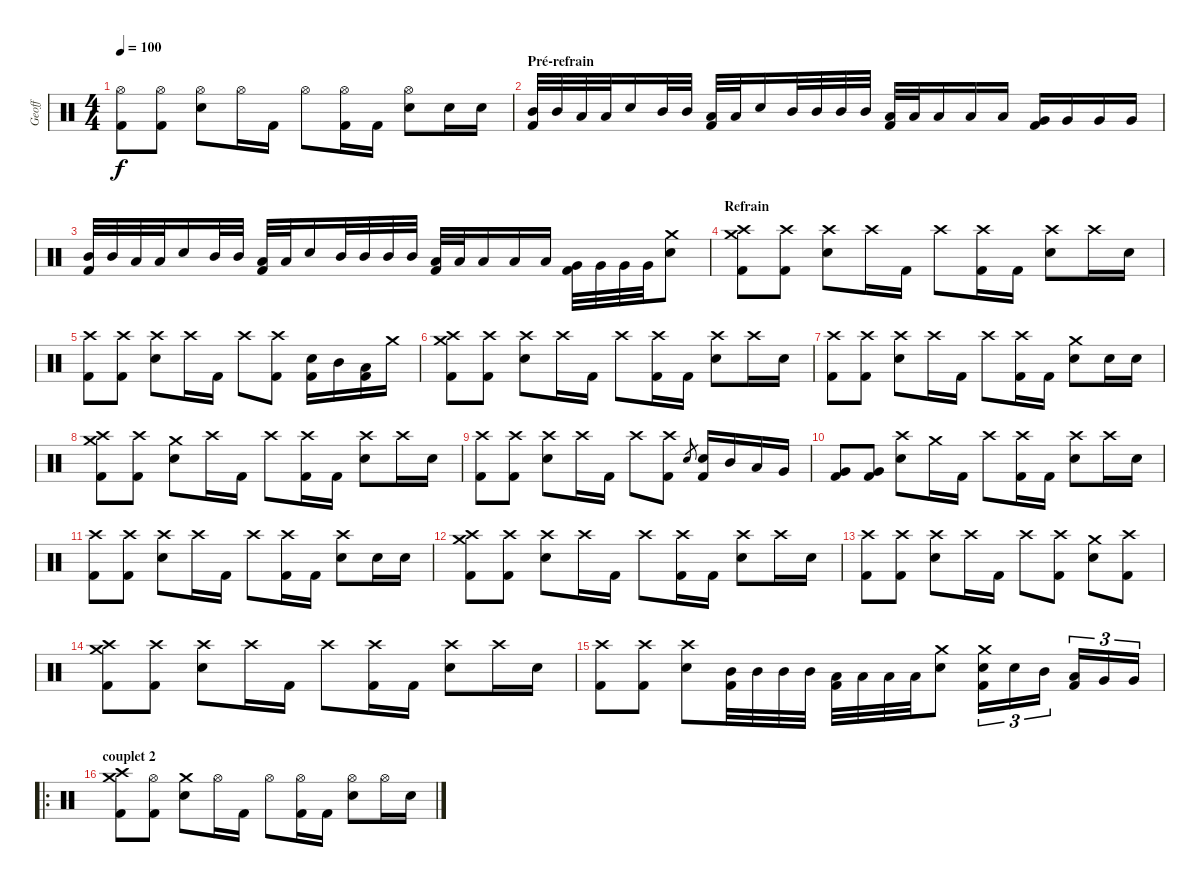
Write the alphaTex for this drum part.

\track ("Geoff" "Geoff") {instrument percussion}
\staff {score}
\articulation defaults
\ts (4 4)
\tempo 100
\clef neutral
\ks c
("Hi-Hat (open)" "Kick (hit) 2").8{dy f} ("Hi-Hat (open)" "Kick (hit) 2").8 ("Hi-Hat (open)" "Electric Snare (hit)").8 "Hi-Hat (open)".16 "Kick (hit) 2".16 "Hi-Hat (open)".8 ("Hi-Hat (open)" "Kick (hit) 2").16 "Kick (hit) 2".16 ("Hi-Hat (open)" "Electric Snare (hit)").8 "Electric Snare (hit)".16 "Electric Snare (hit)".16 |
\section ("" "Pré-refrain")
("Mid Tom (hit)" "Kick (hit) 2").32 "Mid Tom (hit)".32 "Low Tom (hit)".32 "Low Tom (hit)".32 "Electric Snare (hit)".16 "Mid Tom (hit)".32 "Mid Tom (hit)".32 ("Low Tom (hit)" "Kick (hit) 2").32 "Low Tom (hit)".32 "Electric Snare (hit)".16 "Mid Tom (hit)".32 "Mid Tom (hit)".32 "Mid Tom (hit)".32 "Mid Tom (hit)".32 ("Low Tom (hit)" "Kick (hit) 2").32 "Low Tom (hit)".32 "Low Tom (hit)".16 "Low Tom (hit)".16 "Low Tom (hit)".16 ("Very Low Tom (hit)" "Kick (hit) 2").16 "Very Low Tom (hit)".16 "Very Low Tom (hit)".16 "Very Low Tom (hit)".16 |
("Mid Tom (hit)" "Kick (hit) 2").32 "Mid Tom (hit)".32 "Low Tom (hit)".32 "Low Tom (hit)".32 "Electric Snare (hit)".16 "Mid Tom (hit)".32 "Mid Tom (hit)".32 ("Low Tom (hit)" "Kick (hit) 2").32 "Low Tom (hit)".32 "Electric Snare (hit)".16 "Mid Tom (hit)".32 "Mid Tom (hit)".32 "Mid Tom (hit)".32 "Mid Tom (hit)".32 ("Low Tom (hit)" "Kick (hit) 2").32 "Low Tom (hit)".32 "Low Tom (hit)".16 "Low Tom (hit)".16 "Low Tom (hit)".16 ("Very Low Tom (hit)" "Kick (hit) 2").32 "Very Low Tom (hit)".32 "Very Low Tom (hit)".32 "Very Low Tom (hit)".32 ("Crash medium (hit)" "Electric Snare (hit)").8 |
\section ("" "Refrain")
("Crash high (hit)" "Crash medium (hit)" "Kick (hit) 2").8 ("Crash high (hit)" "Kick (hit) 2").8 ("Crash high (hit)" "Electric Snare (hit)").8 "Crash high (hit)".16 "Kick (hit) 2".16 "Crash high (hit)".8 ("Crash high (hit)" "Kick (hit) 2").16 "Kick (hit) 2".16 ("Crash high (hit)" "Electric Snare (hit)").8 "Crash high (hit)".16 "Electric Snare (hit)".16 |
("Crash high (hit)" "Kick (hit) 2").8 ("Crash high (hit)" "Kick (hit) 2").8 ("Crash high (hit)" "Electric Snare (hit)").8 "Crash high (hit)".16 "Kick (hit) 2".16 "Crash high (hit)".8 ("Crash high (hit)" "Kick (hit) 2").8 ("Electric Snare (hit)" "Kick (hit) 2").16 "Mid Tom (hit)".16 ("Low Tom (hit)" "Kick (hit) 2").16 "Crash medium (hit)".16 |
("Crash high (hit)" "Crash medium (hit)" "Kick (hit) 2").8 ("Crash high (hit)" "Kick (hit) 2").8 ("Crash high (hit)" "Electric Snare (hit)").8 "Crash high (hit)".16 "Kick (hit) 2".16 "Crash high (hit)".8 ("Crash high (hit)" "Kick (hit) 2").16 "Kick (hit) 2".16 ("Crash high (hit)" "Electric Snare (hit)").8 "Crash high (hit)".16 "Electric Snare (hit)".16 |
("Crash high (hit)" "Kick (hit) 2").8 ("Crash high (hit)" "Kick (hit) 2").8 ("Crash high (hit)" "Electric Snare (hit)").8 "Crash high (hit)".16 "Kick (hit) 2".16 "Crash high (hit)".8 ("Crash high (hit)" "Kick (hit) 2").16 "Kick (hit) 2".16 ("Crash medium (hit)" "Electric Snare (hit)").8 "Electric Snare (hit)".16 "Electric Snare (hit)".16 |
("Crash high (hit)" "Crash medium (hit)" "Kick (hit) 2").8 ("Crash high (hit)" "Kick (hit) 2").8 ("Crash medium (hit)" "Electric Snare (hit)").8 "Crash high (hit)".16 "Kick (hit) 2".16 "Crash high (hit)".8 ("Crash high (hit)" "Kick (hit) 2").16 "Kick (hit) 2".16 ("Crash high (hit)" "Electric Snare (hit)").8 "Crash high (hit)".16 "Electric Snare (hit)".16 |
("Crash high (hit)" "Kick (hit) 2").8 ("Crash high (hit)" "Kick (hit) 2").8 ("Crash high (hit)" "Electric Snare (hit)").8 "Crash high (hit)".16 "Kick (hit) 2".16 "Crash high (hit)".8 ("Crash high (hit)" "Kick (hit) 2").8 "Electric Snare (hit)".8{gr} ("Electric Snare (hit)" "Kick (hit) 2").16 "Mid Tom (hit)".16 "Low Tom (hit)".16 "Very Low Tom (hit)".16 |
("Very Low Tom (hit)" "Kick (hit) 2").8 ("Very Low Tom (hit)" "Kick (hit) 2").8 ("Crash high (hit)" "Electric Snare (hit)").8 "Crash medium (hit)".16 "Kick (hit) 2".16 "Crash high (hit)".8 ("Crash high (hit)" "Kick (hit) 2").16 "Kick (hit) 2".16 ("Crash high (hit)" "Electric Snare (hit)").8 "Crash high (hit)".16 "Electric Snare (hit)".16 |
("Crash high (hit)" "Kick (hit) 2").8 ("Crash high (hit)" "Kick (hit) 2").8 ("Crash high (hit)" "Electric Snare (hit)").8 "Crash high (hit)".16 "Kick (hit) 2".16 "Crash high (hit)".8 ("Crash high (hit)" "Kick (hit) 2").16 "Kick (hit) 2".16 ("Crash high (hit)" "Electric Snare (hit)").8 "Electric Snare (hit)".16 "Electric Snare (hit)".16 |
("Crash high (hit)" "Crash medium (hit)" "Kick (hit) 2").8 ("Crash high (hit)" "Kick (hit) 2").8 ("Crash high (hit)" "Electric Snare (hit)").8 "Crash high (hit)".16 "Kick (hit) 2".16 "Crash high (hit)".8 ("Crash high (hit)" "Kick (hit) 2").16 "Kick (hit) 2".16 ("Crash high (hit)" "Electric Snare (hit)").8 "Crash high (hit)".16 "Electric Snare (hit)".16 |
("Crash high (hit)" "Kick (hit) 2").8 ("Crash high (hit)" "Kick (hit) 2").8 ("Crash high (hit)" "Electric Snare (hit)").8 "Crash high (hit)".16 "Kick (hit) 2".16 "Crash high (hit)".8 ("Crash high (hit)" "Kick (hit) 2").8 ("Crash medium (hit)" "Electric Snare (hit)").8 ("Crash high (hit)" "Kick (hit) 2").8 |
("Crash high (hit)" "Crash medium (hit)" "Kick (hit) 2").8 ("Crash high (hit)" "Kick (hit) 2").8 ("Crash high (hit)" "Electric Snare (hit)").8 "Crash high (hit)".16 "Kick (hit) 2".16 "Crash high (hit)".8 ("Crash high (hit)" "Kick (hit) 2").16 "Kick (hit) 2".16 ("Crash high (hit)" "Electric Snare (hit)").8 "Crash high (hit)".16 "Electric Snare (hit)".16 |
("Crash high (hit)" "Kick (hit) 2").8 ("Crash high (hit)" "Kick (hit) 2").8 ("Crash high (hit)" "Electric Snare (hit)").8 ("Mid Tom (hit)" "Kick (hit) 2").32 "Mid Tom (hit)".32 "Mid Tom (hit)".32 "Mid Tom (hit)".32 ("Low Tom (hit)" "Kick (hit) 2").32 "Low Tom (hit)".32 "Low Tom (hit)".32 "Low Tom (hit)".32 ("Crash medium (hit)" "Electric Snare (hit)").8 ("Crash medium (hit)" "Electric Snare (hit)" "Kick (hit) 2").16{tu (3 2)} "Electric Snare (hit)".16{tu (3 2)} "Mid Tom (hit)".16{tu (3 2)} ("Low Tom (hit)" "Kick (hit) 2").16{tu (3 2)} "Very Low Tom (hit)".16{tu (3 2)} "Very Low Tom (hit)".16{tu (3 2)} |
\ro
\section ("" "couplet 2")
("Crash high (hit)" "Crash medium (hit)" "Kick (hit) 2").8 ("Hi-Hat (open)" "Kick (hit) 2").8 ("Crash medium (hit)" "Electric Snare (hit)").8 "Hi-Hat (open)".16 "Kick (hit) 2".16 "Hi-Hat (open)".8 ("Hi-Hat (open)" "Kick (hit) 2").16 "Kick (hit) 2".16 ("Hi-Hat (open)" "Electric Snare (hit)").8 "Hi-Hat (open)".16 "Electric Snare (hit)".16
